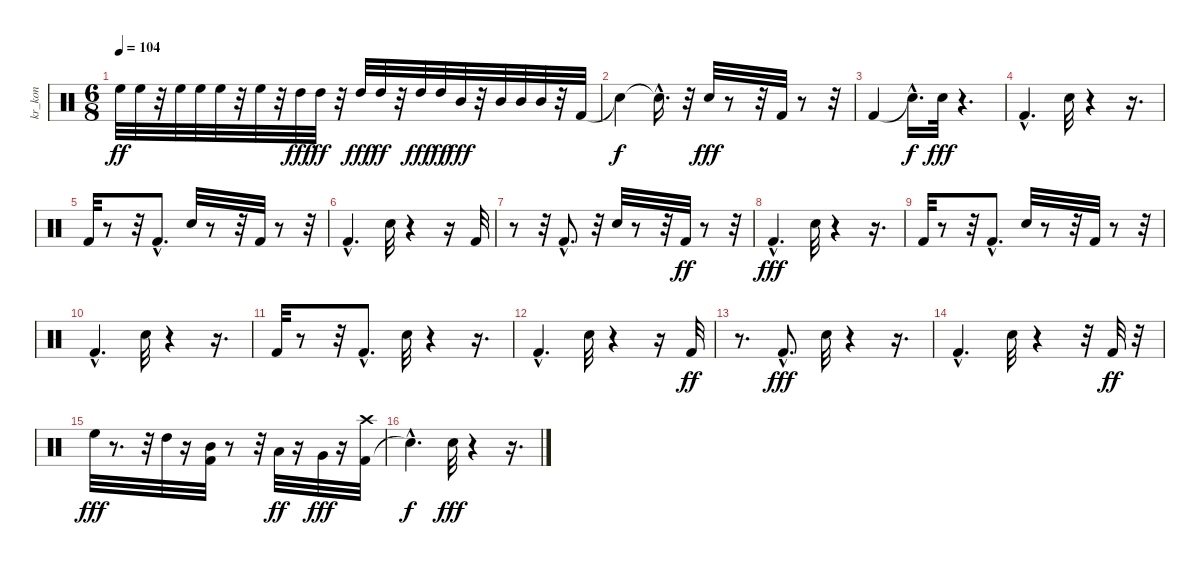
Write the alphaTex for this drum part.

\track ("kr_kon" "kr_kon") {instrument percussion}
\staff {score}
\articulation defaults
\ts (6 8)
\tempo 104
\clef neutral
\ks c "High Floor Tom (hit)".32{dy ff} "High Floor Tom (hit)".32
r.32 "High Floor Tom (hit)".32 "High Floor Tom (hit)".32 "High Floor Tom (hit)".32 r.32 "High Floor Tom (hit)".32 r.32 "High Tom (hit)".32{dy fff} "High Tom (hit)".32{dy ff} r.32 "High Tom (hit)".32{dy fff} "High Tom (hit)".32{dy ff} r.32 "High Tom (hit)".32{dy fff} "High Tom (hit)".32{dy ff} "Mid Tom (hit)".32{dy fff} r.32 "Mid Tom (hit)".32 "Mid Tom (hit)".32 "Mid Tom (hit)".32 r.32 "Kick (hit) 2".32 |
"Snare (hit)"{t}.4{dy f} "Snare (hit)"{hac t}.16{d} r.32 "Electric Snare (hit)".32{dy fff} r.8 r.32 "Kick (hit) 2".32 r.8 r.32 |
"Kick (hit) 2".4 "Snare (hit)"{hac t}.16{d dy f} "Electric Snare (hit)".32{dy fff} r.4{d} |
"Kick (hit) 2"{hac}.4{d} "Electric Snare (hit)".32 r.4 r.16{d} |
"Kick (hit) 2".32 r.8 r.32 "Kick (hit) 2"{hac}.8{d} "Electric Snare (hit)".32 r.8 r.32 "Kick (hit) 2".32 r.8 r.32 |
"Kick (hit) 2"{hac}.4{d} "Electric Snare (hit)".32 r.4 r.16 "Kick (hit) 2".32 |
r.8 r.32 "Kick (hit) 2"{hac}.8{d} r.32 "Electric Snare (hit)".32 r.8 r.32 "Kick (hit) 2".32{dy ff} r.8 r.32 |
"Kick (hit) 2"{hac}.4{d dy fff} "Electric Snare (hit)".32 r.4 r.16{d} |
"Kick (hit) 2".32 r.8 r.32 "Kick (hit) 2"{hac}.8{d} "Electric Snare (hit)".32 r.8 r.32 "Kick (hit) 2".32 r.8 r.32 |
"Kick (hit) 2"{hac}.4{d} "Electric Snare (hit)".32 r.4 r.16{d} |
"Kick (hit) 2".32 r.8 r.32 "Kick (hit) 2"{hac}.8{d} "Electric Snare (hit)".32 r.4 r.16{d} |
"Kick (hit) 2"{hac}.4{d} "Electric Snare (hit)".32 r.4 r.16 "Kick (hit) 2".32{dy ff} |
r.8{d} "Kick (hit) 2"{hac}.8{d dy fff} "Electric Snare (hit)".32 r.4 r.16{d} |
"Kick (hit) 2"{hac}.4{d} "Electric Snare (hit)".32 r.4 r.32 "Kick (hit) 2".32{dy ff} r.32 |
"High Floor Tom (hit)".32{dy fff} r.8{d} r.32 "High Tom (hit)".32 r.16 ("Kick (hit) 2" "Mid Tom (hit)").32 r.8 r.32 "Low Tom (hit)".32{dy ff} r.16 "Very Low Tom (hit)".32{dy fff} r.16 ("Kick (hit) 2" "Crash high (hit)").32 |
"Snare (hit)"{hac t}.4{d dy f} "Electric Snare (hit)".32{dy fff} r.4 r.16{d}
